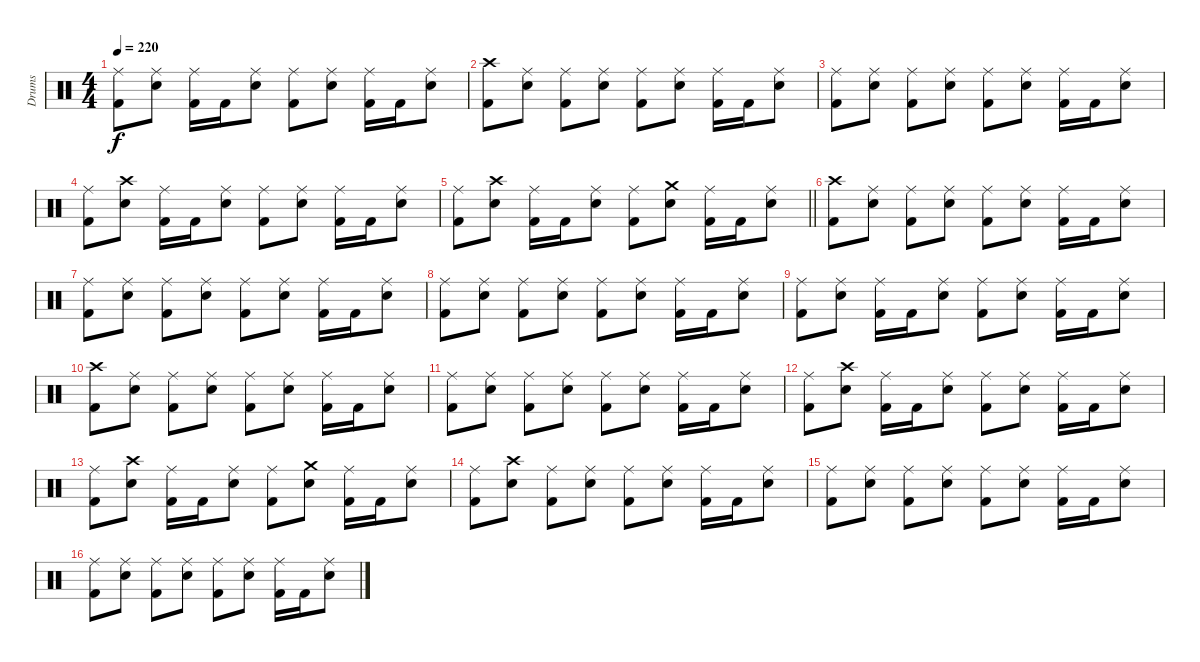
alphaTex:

\track ("Drums" "Drums") {instrument percussion}
\staff {score}
\articulation defaults
\ts (4 4)
\tempo 220
\clef neutral
\ks c
("Ride (middle)" "Kick (hit) 2").8{dy f} ("Ride (middle)" "Snare (hit) 2").8 ("Ride (middle)" "Kick (hit) 2").16 "Kick (hit) 2".16 ("Ride (middle)" "Snare (hit) 2").8 ("Ride (middle)" "Kick (hit) 2").8 ("Ride (middle)" "Snare (hit) 2").8 ("Ride (middle)" "Kick (hit) 2").16 "Kick (hit) 2".16 ("Ride (middle)" "Snare (hit) 2").8 |
("Crash high (hit)" "Kick (hit) 2").8 ("Ride (middle)" "Snare (hit) 2").8 ("Ride (middle)" "Kick (hit) 2").8 ("Ride (middle)" "Snare (hit) 2").8 ("Ride (middle)" "Kick (hit) 2").8 ("Ride (middle)" "Snare (hit) 2").8 ("Ride (middle)" "Kick (hit) 2").16 "Kick (hit) 2".16 ("Ride (middle)" "Snare (hit) 2").8 |
("Ride (middle)" "Kick (hit) 2").8 ("Ride (middle)" "Snare (hit) 2").8 ("Ride (middle)" "Kick (hit) 2").8 ("Ride (middle)" "Snare (hit) 2").8 ("Ride (middle)" "Kick (hit) 2").8 ("Ride (middle)" "Snare (hit) 2").8 ("Ride (middle)" "Kick (hit) 2").16 "Kick (hit) 2".16 ("Ride (middle)" "Snare (hit) 2").8 |
("Ride (middle)" "Kick (hit) 2").8 ("Crash high (hit)" "Snare (hit) 2").8 ("Ride (middle)" "Kick (hit) 2").16 "Kick (hit) 2".16 ("Ride (middle)" "Snare (hit) 2").8 ("Ride (middle)" "Kick (hit) 2").8 ("Ride (middle)" "Snare (hit) 2").8 ("Ride (middle)" "Kick (hit) 2").16 "Kick (hit) 2".16 ("Ride (middle)" "Snare (hit) 2").8 |
\barLineRight lightlight
("Ride (middle)" "Kick (hit) 2").8 ("Crash high (hit)" "Snare (hit) 2").8 ("Ride (middle)" "Kick (hit) 2").16 "Kick (hit) 2".16 ("Ride (middle)" "Snare (hit) 2").8 ("Ride (middle)" "Kick (hit) 2").8 ("Crash medium (hit)" "Snare (hit) 2").8 ("Ride (middle)" "Kick (hit) 2").16 "Kick (hit) 2".16 ("Ride (middle)" "Snare (hit) 2").8 |
("Crash high (hit)" "Kick (hit) 2").8 ("Ride (middle)" "Snare (hit) 2").8 ("Ride (middle)" "Kick (hit) 2").8 ("Ride (middle)" "Snare (hit) 2").8 ("Ride (middle)" "Kick (hit) 2").8 ("Ride (middle)" "Snare (hit) 2").8 ("Ride (middle)" "Kick (hit) 2").16 "Kick (hit) 2".16 ("Ride (middle)" "Snare (hit) 2").8 |
("Ride (middle)" "Kick (hit) 2").8 ("Ride (middle)" "Snare (hit) 2").8 ("Ride (middle)" "Kick (hit) 2").8 ("Ride (middle)" "Snare (hit) 2").8 ("Ride (middle)" "Kick (hit) 2").8 ("Ride (middle)" "Snare (hit) 2").8 ("Ride (middle)" "Kick (hit) 2").16 "Kick (hit) 2".16 ("Ride (middle)" "Snare (hit) 2").8 |
("Ride (middle)" "Kick (hit) 2").8 ("Ride (middle)" "Snare (hit) 2").8 ("Ride (middle)" "Kick (hit) 2").8 ("Ride (middle)" "Snare (hit) 2").8 ("Ride (middle)" "Kick (hit) 2").8 ("Ride (middle)" "Snare (hit) 2").8 ("Ride (middle)" "Kick (hit) 2").16 "Kick (hit) 2".16 ("Ride (middle)" "Snare (hit) 2").8 |
("Ride (middle)" "Kick (hit) 2").8 ("Ride (middle)" "Snare (hit) 2").8 ("Ride (middle)" "Kick (hit) 2").16 "Kick (hit) 2".16 ("Ride (middle)" "Snare (hit) 2").8 ("Ride (middle)" "Kick (hit) 2").8 ("Ride (middle)" "Snare (hit) 2").8 ("Ride (middle)" "Kick (hit) 2").16 "Kick (hit) 2".16 ("Ride (middle)" "Snare (hit) 2").8 |
("Crash high (hit)" "Kick (hit) 2").8 ("Ride (middle)" "Snare (hit) 2").8 ("Ride (middle)" "Kick (hit) 2").8 ("Ride (middle)" "Snare (hit) 2").8 ("Ride (middle)" "Kick (hit) 2").8 ("Ride (middle)" "Snare (hit) 2").8 ("Ride (middle)" "Kick (hit) 2").16 "Kick (hit) 2".16 ("Ride (middle)" "Snare (hit) 2").8 |
("Ride (middle)" "Kick (hit) 2").8 ("Ride (middle)" "Snare (hit) 2").8 ("Ride (middle)" "Kick (hit) 2").8 ("Ride (middle)" "Snare (hit) 2").8 ("Ride (middle)" "Kick (hit) 2").8 ("Ride (middle)" "Snare (hit) 2").8 ("Ride (middle)" "Kick (hit) 2").16 "Kick (hit) 2".16 ("Ride (middle)" "Snare (hit) 2").8 |
("Ride (middle)" "Kick (hit) 2").8 ("Crash high (hit)" "Snare (hit) 2").8 ("Ride (middle)" "Kick (hit) 2").16 "Kick (hit) 2".16 ("Ride (middle)" "Snare (hit) 2").8 ("Ride (middle)" "Kick (hit) 2").8 ("Ride (middle)" "Snare (hit) 2").8 ("Ride (middle)" "Kick (hit) 2").16 "Kick (hit) 2".16 ("Ride (middle)" "Snare (hit) 2").8 |
("Ride (middle)" "Kick (hit) 2").8 ("Crash high (hit)" "Snare (hit) 2").8 ("Ride (middle)" "Kick (hit) 2").16 "Kick (hit) 2".16 ("Ride (middle)" "Snare (hit) 2").8 ("Ride (middle)" "Kick (hit) 2").8 ("Crash medium (hit)" "Snare (hit) 2").8 ("Ride (middle)" "Kick (hit) 2").16 "Kick (hit) 2".16 ("Ride (middle)" "Snare (hit) 2").8 |
("Ride (middle)" "Kick (hit) 2").8 ("Crash high (hit)" "Snare (hit) 2").8 ("Ride (middle)" "Kick (hit) 2").8 ("Ride (middle)" "Snare (hit) 2").8 ("Ride (middle)" "Kick (hit) 2").8 ("Ride (middle)" "Snare (hit) 2").8 ("Ride (middle)" "Kick (hit) 2").16 "Kick (hit) 2".16 ("Ride (middle)" "Snare (hit) 2").8 |
("Ride (middle)" "Kick (hit) 2").8 ("Ride (middle)" "Snare (hit) 2").8 ("Ride (middle)" "Kick (hit) 2").8 ("Ride (middle)" "Snare (hit) 2").8 ("Ride (middle)" "Kick (hit) 2").8 ("Ride (middle)" "Snare (hit) 2").8 ("Ride (middle)" "Kick (hit) 2").16 "Kick (hit) 2".16 ("Ride (middle)" "Snare (hit) 2").8 |
("Ride (middle)" "Kick (hit) 2").8 ("Ride (middle)" "Snare (hit) 2").8 ("Ride (middle)" "Kick (hit) 2").8 ("Ride (middle)" "Snare (hit) 2").8 ("Ride (middle)" "Kick (hit) 2").8 ("Ride (middle)" "Snare (hit) 2").8 ("Ride (middle)" "Kick (hit) 2").16 "Kick (hit) 2".16 ("Ride (middle)" "Snare (hit) 2").8
